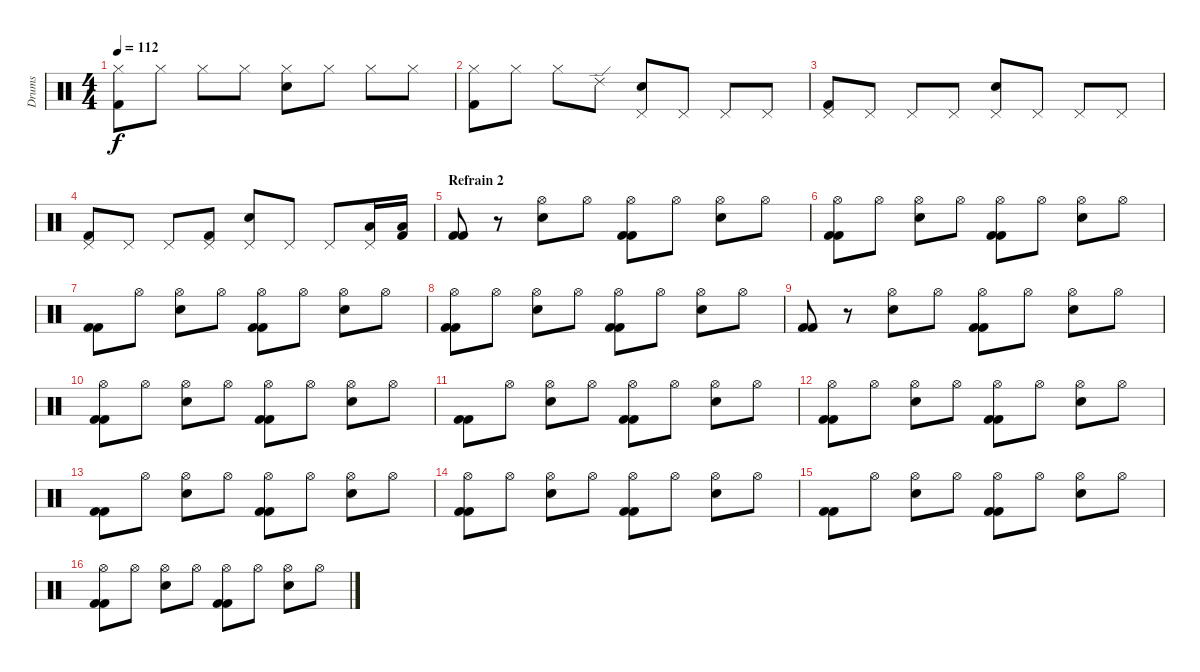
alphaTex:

\track ("Drums" "Drums") {instrument percussion}
\staff {score}
\articulation defaults
\ts (4 4)
\tempo 112
\clef neutral
\ks c
("Hi-Hat (closed)" "Kick (hit) 2").8{dy f} "Hi-Hat (closed)".8 "Hi-Hat (closed)".8 "Hi-Hat (closed)".8 ("Hi-Hat (closed)" "Electric Snare (hit)").8 "Hi-Hat (closed)".8 "Hi-Hat (closed)".8 "Hi-Hat (closed)".8 |
("Hi-Hat (closed)" "Kick (hit) 2").8 "Hi-Hat (closed)".8 "Hi-Hat (closed)".8 "Ride (edge) 2".8 ("Pedal Hi-Hat (hit)" "Electric Snare (hit)").8 "Pedal Hi-Hat (hit)".8 "Pedal Hi-Hat (hit)".8 "Pedal Hi-Hat (hit)".8 |
("Pedal Hi-Hat (hit)" "Kick (hit) 2").8 "Pedal Hi-Hat (hit)".8 "Pedal Hi-Hat (hit)".8 "Pedal Hi-Hat (hit)".8 ("Pedal Hi-Hat (hit)" "Electric Snare (hit)").8 "Pedal Hi-Hat (hit)".8 "Pedal Hi-Hat (hit)".8 "Pedal Hi-Hat (hit)".8 |
("Pedal Hi-Hat (hit)" "Kick (hit) 2").8 "Pedal Hi-Hat (hit)".8 "Pedal Hi-Hat (hit)".8 ("Pedal Hi-Hat (hit)" "Kick (hit) 2").8 ("Pedal Hi-Hat (hit)" "Electric Snare (hit)").8 "Pedal Hi-Hat (hit)".8 "Pedal Hi-Hat (hit)".8 ("Pedal Hi-Hat (hit)" "Low Floor Tom (hit)").16 ("Low Floor Tom (hit)" "Kick (hit) 2").16 |
\section ("" "Refrain 2")
("Kick (hit) 2" "Kick (hit) 2").8 r.8 ("Hi-Hat (open)" "Electric Snare (hit)").8 "Hi-Hat (open)".8 ("Hi-Hat (open)" "Kick (hit) 2" "Kick (hit) 2").8 "Hi-Hat (open)".8 ("Hi-Hat (open)" "Electric Snare (hit)").8 "Hi-Hat (open)".8 |
("Hi-Hat (open)" "Kick (hit) 2" "Kick (hit) 2").8 "Hi-Hat (open)".8 ("Hi-Hat (open)" "Electric Snare (hit)").8 "Hi-Hat (open)".8 ("Hi-Hat (open)" "Kick (hit) 2" "Kick (hit) 2").8 "Hi-Hat (open)".8 ("Hi-Hat (open)" "Electric Snare (hit)").8 "Hi-Hat (open)".8 |
("Kick (hit) 2" "Kick (hit) 2").8 "Hi-Hat (open)".8 ("Hi-Hat (open)" "Electric Snare (hit)").8 "Hi-Hat (open)".8 ("Hi-Hat (open)" "Kick (hit) 2" "Kick (hit) 2").8 "Hi-Hat (open)".8 ("Hi-Hat (open)" "Electric Snare (hit)").8 "Hi-Hat (open)".8 |
("Hi-Hat (open)" "Kick (hit) 2" "Kick (hit) 2").8 "Hi-Hat (open)".8 ("Hi-Hat (open)" "Electric Snare (hit)").8 "Hi-Hat (open)".8 ("Hi-Hat (open)" "Kick (hit) 2" "Kick (hit) 2").8 "Hi-Hat (open)".8 ("Hi-Hat (open)" "Electric Snare (hit)").8 "Hi-Hat (open)".8 |
("Kick (hit) 2" "Kick (hit) 2").8 r.8 ("Hi-Hat (open)" "Electric Snare (hit)").8 "Hi-Hat (open)".8 ("Hi-Hat (open)" "Kick (hit) 2" "Kick (hit) 2").8 "Hi-Hat (open)".8 ("Hi-Hat (open)" "Electric Snare (hit)").8 "Hi-Hat (open)".8 |
("Hi-Hat (open)" "Kick (hit) 2" "Kick (hit) 2").8 "Hi-Hat (open)".8 ("Hi-Hat (open)" "Electric Snare (hit)").8 "Hi-Hat (open)".8 ("Hi-Hat (open)" "Kick (hit) 2" "Kick (hit) 2").8 "Hi-Hat (open)".8 ("Hi-Hat (open)" "Electric Snare (hit)").8 "Hi-Hat (open)".8 |
("Kick (hit) 2" "Kick (hit) 2").8 "Hi-Hat (open)".8 ("Hi-Hat (open)" "Electric Snare (hit)").8 "Hi-Hat (open)".8 ("Hi-Hat (open)" "Kick (hit) 2" "Kick (hit) 2").8 "Hi-Hat (open)".8 ("Hi-Hat (open)" "Electric Snare (hit)").8 "Hi-Hat (open)".8 |
("Hi-Hat (open)" "Kick (hit) 2" "Kick (hit) 2").8 "Hi-Hat (open)".8 ("Hi-Hat (open)" "Electric Snare (hit)").8 "Hi-Hat (open)".8 ("Hi-Hat (open)" "Kick (hit) 2" "Kick (hit) 2").8 "Hi-Hat (open)".8 ("Hi-Hat (open)" "Electric Snare (hit)").8 "Hi-Hat (open)".8 |
("Kick (hit) 2" "Kick (hit) 2").8 "Hi-Hat (open)".8 ("Hi-Hat (open)" "Electric Snare (hit)").8 "Hi-Hat (open)".8 ("Hi-Hat (open)" "Kick (hit) 2" "Kick (hit) 2").8 "Hi-Hat (open)".8 ("Hi-Hat (open)" "Electric Snare (hit)").8 "Hi-Hat (open)".8 |
("Hi-Hat (open)" "Kick (hit) 2" "Kick (hit) 2").8 "Hi-Hat (open)".8 ("Hi-Hat (open)" "Electric Snare (hit)").8 "Hi-Hat (open)".8 ("Hi-Hat (open)" "Kick (hit) 2" "Kick (hit) 2").8 "Hi-Hat (open)".8 ("Hi-Hat (open)" "Electric Snare (hit)").8 "Hi-Hat (open)".8 |
("Kick (hit) 2" "Kick (hit) 2").8 "Hi-Hat (open)".8 ("Hi-Hat (open)" "Electric Snare (hit)").8 "Hi-Hat (open)".8 ("Hi-Hat (open)" "Kick (hit) 2" "Kick (hit) 2").8 "Hi-Hat (open)".8 ("Hi-Hat (open)" "Electric Snare (hit)").8 "Hi-Hat (open)".8 |
("Hi-Hat (open)" "Kick (hit) 2" "Kick (hit) 2").8 "Hi-Hat (open)".8 ("Hi-Hat (open)" "Electric Snare (hit)").8 "Hi-Hat (open)".8 ("Hi-Hat (open)" "Kick (hit) 2" "Kick (hit) 2").8 "Hi-Hat (open)".8 ("Hi-Hat (open)" "Electric Snare (hit)").8 "Hi-Hat (open)".8
